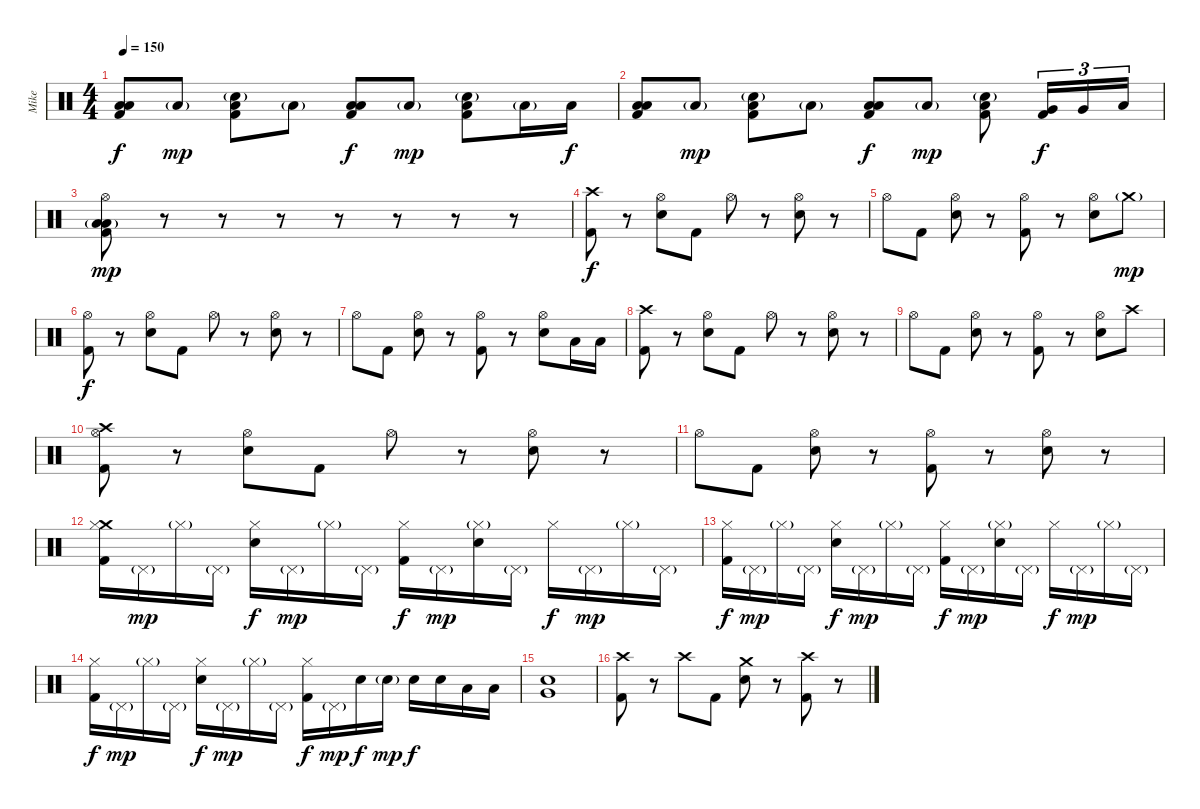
\track ("Mike" "Mike") {instrument percussion}
\staff {score}
\articulation defaults
\ts (4 4)
\tempo 150
\clef neutral
\ks c
("Low Floor Tom (hit)" "Low Tom (hit)" "Kick (hit) 2").8{dy f} "Low Floor Tom (hit)"{g}.8{dy mp} ("Low Floor Tom (hit)" "Electric Snare (hit)"{g} "Kick (hit) 2").8 "Low Floor Tom (hit)"{g}.8 ("Low Floor Tom (hit)" "Low Tom (hit)" "Kick (hit) 2").8{dy f} "Low Floor Tom (hit)"{g}.8{dy mp} ("Low Floor Tom (hit)" "Electric Snare (hit)"{g} "Kick (hit) 2").8 "Low Floor Tom (hit)"{g}.16 "Low Floor Tom (hit)".16{dy f} |
("Low Floor Tom (hit)" "Low Tom (hit)" "Kick (hit) 2").8 "Low Floor Tom (hit)"{g}.8{dy mp} ("Low Floor Tom (hit)" "Electric Snare (hit)"{g} "Kick (hit) 2").8 "Low Floor Tom (hit)"{g}.8 ("Low Floor Tom (hit)" "Low Tom (hit)" "Kick (hit) 2").8{dy f} "Low Floor Tom (hit)"{g}.8{dy mp} ("Low Floor Tom (hit)" "Electric Snare (hit)"{g} "Kick (hit) 2").8 ("Very Low Tom (hit)" "Kick (hit) 2").16{tu (3 2) dy f} "Very Low Tom (hit)".16{tu (3 2)} "Low Floor Tom (hit)".16{tu (3 2)} |
("Hi-Hat (open)" "Low Floor Tom (hit)"{g} "Low Tom (hit)" "Kick (hit) 2").8{dy mp} r.8 r.8 r.8 r.8 r.8 r.8 r.8 |
("Crash high (hit)" "Kick (hit) 2").8{dy f} r.8 ("Hi-Hat (open)" "Electric Snare (hit)").8 "Kick (hit) 2".8 "Hi-Hat (open)".8 r.8 ("Hi-Hat (open)" "Electric Snare (hit)").8 r.8 |
"Hi-Hat (open)".8 "Kick (hit) 2".8 ("Hi-Hat (open)" "Electric Snare (hit)").8 r.8 ("Hi-Hat (open)" "Kick (hit) 2").8 r.8 ("Hi-Hat (open)" "Electric Snare (hit)").8 "Crash medium (hit)"{g}.8{dy mp} |
("Hi-Hat (open)" "Kick (hit) 2").8{dy f} r.8 ("Hi-Hat (open)" "Electric Snare (hit)").8 "Kick (hit) 2".8 "Hi-Hat (open)".8 r.8 ("Hi-Hat (open)" "Electric Snare (hit)").8 r.8 |
"Hi-Hat (open)".8 "Kick (hit) 2".8 ("Hi-Hat (open)" "Electric Snare (hit)").8 r.8 ("Hi-Hat (open)" "Kick (hit) 2").8 r.8 ("Hi-Hat (open)" "Electric Snare (hit)").8 "Low Tom (hit)".16 "Low Tom (hit)".16 |
("Crash high (hit)" "Kick (hit) 2").8 r.8 ("Hi-Hat (open)" "Electric Snare (hit)").8 "Kick (hit) 2".8 "Hi-Hat (open)".8 r.8 ("Hi-Hat (open)" "Electric Snare (hit)").8 r.8 |
"Hi-Hat (open)".8 "Kick (hit) 2".8 ("Hi-Hat (open)" "Electric Snare (hit)").8 r.8 ("Hi-Hat (open)" "Kick (hit) 2").8 r.8 ("Hi-Hat (open)" "Electric Snare (hit)").8 "Crash high (hit)".8 |
("Crash high (hit)" "Hi-Hat (open)" "Kick (hit) 2").8 r.8 ("Hi-Hat (open)" "Electric Snare (hit)").8 "Kick (hit) 2".8 "Hi-Hat (open)".8 r.8 ("Hi-Hat (open)" "Electric Snare (hit)").8 r.8 |
"Hi-Hat (open)".8 "Kick (hit) 2".8 ("Hi-Hat (open)" "Electric Snare (hit)").8 r.8 ("Hi-Hat (open)" "Kick (hit) 2").8 r.8 ("Hi-Hat (open)" "Electric Snare (hit)").8 r.8 |
("Crash medium (hit)" "Hi-Hat (closed)" "Kick (hit) 2").16 "Pedal Hi-Hat (hit)"{g}.16{dy mp} "Hi-Hat (closed)"{g}.16 "Pedal Hi-Hat (hit)"{g}.16 ("Hi-Hat (closed)" "Electric Snare (hit)").16{dy f} "Pedal Hi-Hat (hit)"{g}.16{dy mp} "Hi-Hat (closed)"{g}.16 "Pedal Hi-Hat (hit)"{g}.16 ("Hi-Hat (closed)" "Kick (hit) 2").16{dy f} "Pedal Hi-Hat (hit)"{g}.16{dy mp} ("Hi-Hat (closed)"{g} "Electric Snare (hit)").16 "Pedal Hi-Hat (hit)"{g}.16 "Hi-Hat (closed)".16{dy f} "Pedal Hi-Hat (hit)"{g}.16{dy mp} "Hi-Hat (closed)"{g}.16 "Pedal Hi-Hat (hit)"{g}.16 |
("Hi-Hat (closed)" "Kick (hit) 2").16{dy f} "Pedal Hi-Hat (hit)"{g}.16{dy mp} "Hi-Hat (closed)"{g}.16 "Pedal Hi-Hat (hit)"{g}.16 ("Hi-Hat (closed)" "Electric Snare (hit)").16{dy f} "Pedal Hi-Hat (hit)"{g}.16{dy mp} "Hi-Hat (closed)"{g}.16 "Pedal Hi-Hat (hit)"{g}.16 ("Hi-Hat (closed)" "Kick (hit) 2").16{dy f} "Pedal Hi-Hat (hit)"{g}.16{dy mp} ("Hi-Hat (closed)"{g} "Electric Snare (hit)").16 "Pedal Hi-Hat (hit)"{g}.16 "Hi-Hat (closed)".16{dy f} "Pedal Hi-Hat (hit)"{g}.16{dy mp} "Hi-Hat (closed)"{g}.16 "Pedal Hi-Hat (hit)"{g}.16 |
("Hi-Hat (closed)" "Kick (hit) 2").16{dy f} "Pedal Hi-Hat (hit)"{g}.16{dy mp} "Hi-Hat (closed)"{g}.16 "Pedal Hi-Hat (hit)"{g}.16 ("Hi-Hat (closed)" "Electric Snare (hit)").16{dy f} "Pedal Hi-Hat (hit)"{g}.16{dy mp} "Hi-Hat (closed)"{g}.16 "Pedal Hi-Hat (hit)"{g}.16 ("Hi-Hat (closed)" "Kick (hit) 2").16{dy f} "Pedal Hi-Hat (hit)"{g}.16{dy mp} "Electric Snare (hit)".16{dy f} "Electric Snare (hit)"{g}.16{dy mp} "Electric Snare (hit)".16{dy f} "Electric Snare (hit)".16 "Low Tom (hit)".16 "Low Tom (hit)".16 |
("Electric Snare (hit)" "Very Low Tom (hit)").1 |
("Crash high (hit)" "Kick (hit) 2").8 r.8 "Crash high (hit)".8 "Kick (hit) 2".8 ("Crash medium (hit)" "Electric Snare (hit)").8 r.8 ("Crash high (hit)" "Kick (hit) 2").8 r.8
